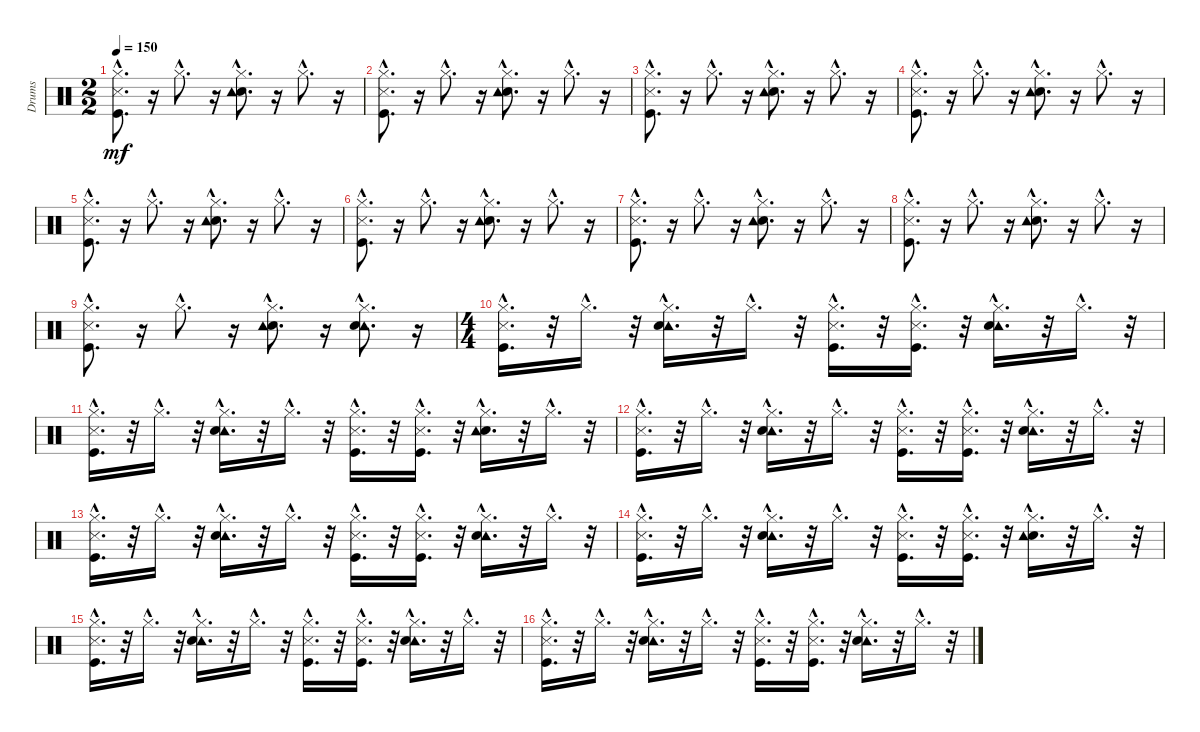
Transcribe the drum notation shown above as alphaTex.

\track ("Drums" "Drums") {instrument percussion}
\staff {score}
\articulation defaults
\ts (2 2)
\tempo 150
\clef neutral
\ks c
("Metronome (hit)"{hac} "Kick (hit)"{hac} "Hi-Hat (closed)"{hac}).8{d dy mf} r.16 "Hi-Hat (closed)"{hac}.8{d} r.16 ("Electric Snare (hit)"{hac} "Tambourine (hit)"{hac} "Hi-Hat (closed)"{hac}).8{d} r.16 "Hi-Hat (closed)"{hac}.8{d} r.16 |
("Metronome (hit)"{hac} "Kick (hit)"{hac} "Hi-Hat (closed)"{hac}).8{d} r.16 "Hi-Hat (closed)"{hac}.8{d} r.16 ("Electric Snare (hit)"{hac} "Tambourine (hit)"{hac} "Hi-Hat (closed)"{hac}).8{d} r.16 "Hi-Hat (closed)"{hac}.8{d} r.16 |
("Metronome (hit)"{hac} "Kick (hit)"{hac} "Hi-Hat (closed)"{hac}).8{d} r.16 "Hi-Hat (closed)"{hac}.8{d} r.16 ("Electric Snare (hit)"{hac} "Tambourine (hit)"{hac} "Hi-Hat (closed)"{hac}).8{d} r.16 "Hi-Hat (closed)"{hac}.8{d} r.16 |
("Metronome (hit)"{hac} "Kick (hit)"{hac} "Hi-Hat (closed)"{hac}).8{d} r.16 "Hi-Hat (closed)"{hac}.8{d} r.16 ("Electric Snare (hit)"{hac} "Tambourine (hit)"{hac} "Hi-Hat (closed)"{hac}).8{d} r.16 "Hi-Hat (closed)"{hac}.8{d} r.16 |
("Metronome (hit)"{hac} "Kick (hit)"{hac} "Hi-Hat (closed)"{hac}).8{d} r.16 "Hi-Hat (closed)"{hac}.8{d} r.16 ("Electric Snare (hit)"{hac} "Tambourine (hit)"{hac} "Hi-Hat (closed)"{hac}).8{d} r.16 "Hi-Hat (closed)"{hac}.8{d} r.16 |
("Metronome (hit)"{hac} "Kick (hit)"{hac} "Hi-Hat (closed)"{hac}).8{d} r.16 "Hi-Hat (closed)"{hac}.8{d} r.16 ("Electric Snare (hit)"{hac} "Tambourine (hit)"{hac} "Hi-Hat (closed)"{hac}).8{d} r.16 "Hi-Hat (closed)"{hac}.8{d} r.16 |
("Metronome (hit)"{hac} "Kick (hit)"{hac} "Hi-Hat (closed)"{hac}).8{d} r.16 "Hi-Hat (closed)"{hac}.8{d} r.16 ("Electric Snare (hit)"{hac} "Tambourine (hit)"{hac} "Hi-Hat (closed)"{hac}).8{d} r.16 "Hi-Hat (closed)"{hac}.8{d} r.16 |
("Metronome (hit)"{hac} "Kick (hit)"{hac} "Hi-Hat (closed)"{hac}).8{d} r.16 "Hi-Hat (closed)"{hac}.8{d} r.16 ("Electric Snare (hit)"{hac} "Tambourine (hit)"{hac} "Hi-Hat (closed)"{hac}).8{d} r.16 "Hi-Hat (closed)"{hac}.8{d} r.16 |
("Metronome (hit)"{hac} "Kick (hit)"{hac} "Hi-Hat (closed)"{hac}).8{d} r.16 "Hi-Hat (closed)"{hac}.8{d} r.16 ("Electric Snare (hit)"{hac} "Tambourine (hit)"{hac} "Hi-Hat (closed)"{hac}).8{d} r.16 ("Tambourine (hit)"{hac} "Electric Snare (hit)"{hac} "Hi-Hat (closed)"{hac}).8{d} r.16 |
\ts (4 4)
("Metronome (hit)"{hac} "Kick (hit)"{hac} "Hi-Hat (closed)"{hac}).16{d} r.32 "Hi-Hat (closed)"{hac}.16{d} r.32 ("Tambourine (hit)"{hac} "Electric Snare (hit)"{hac} "Hi-Hat (closed)"{hac}).16{d} r.32 "Hi-Hat (closed)"{hac}.16{d} r.32 ("Metronome (hit)"{hac} "Kick (hit)"{hac} "Hi-Hat (closed)"{hac}).16{d} r.32 ("Hi-Hat (closed)"{hac} "Metronome (hit)"{hac} "Kick (hit)"{hac}).16{d} r.32 ("Tambourine (hit)"{hac} "Electric Snare (hit)"{hac} "Hi-Hat (closed)"{hac}).16{d} r.32 "Hi-Hat (closed)"{hac}.16{d} r.32 |
("Metronome (hit)"{hac} "Kick (hit)"{hac} "Hi-Hat (closed)"{hac}).16{d} r.32 "Hi-Hat (closed)"{hac}.16{d} r.32 ("Tambourine (hit)"{hac} "Electric Snare (hit)"{hac} "Hi-Hat (closed)"{hac}).16{d} r.32 "Hi-Hat (closed)"{hac}.16{d} r.32 ("Metronome (hit)"{hac} "Kick (hit)"{hac} "Hi-Hat (closed)"{hac}).16{d} r.32 ("Kick (hit)"{hac} "Metronome (hit)"{hac} "Hi-Hat (closed)"{hac}).16{d} r.32 ("Electric Snare (hit)"{hac} "Hi-Hat (closed)"{hac} "Tambourine (hit)"{hac}).16{d} r.32 "Hi-Hat (closed)"{hac}.16{d} r.32 |
("Metronome (hit)"{hac} "Kick (hit)"{hac} "Hi-Hat (closed)"{hac}).16{d} r.32 "Hi-Hat (closed)"{hac}.16{d} r.32 ("Tambourine (hit)"{hac} "Electric Snare (hit)"{hac} "Hi-Hat (closed)"{hac}).16{d} r.32 "Hi-Hat (closed)"{hac}.16{d} r.32 ("Metronome (hit)"{hac} "Kick (hit)"{hac} "Hi-Hat (closed)"{hac}).16{d} r.32 ("Hi-Hat (closed)"{hac} "Metronome (hit)"{hac} "Kick (hit)"{hac}).16{d} r.32 ("Tambourine (hit)"{hac} "Electric Snare (hit)"{hac} "Hi-Hat (closed)"{hac}).16{d} r.32 "Hi-Hat (closed)"{hac}.16{d} r.32 |
("Metronome (hit)"{hac} "Kick (hit)"{hac} "Hi-Hat (closed)"{hac}).16{d} r.32 "Hi-Hat (closed)"{hac}.16{d} r.32 ("Tambourine (hit)"{hac} "Electric Snare (hit)"{hac} "Hi-Hat (closed)"{hac}).16{d} r.32 "Hi-Hat (closed)"{hac}.16{d} r.32 ("Metronome (hit)"{hac} "Kick (hit)"{hac} "Hi-Hat (closed)"{hac}).16{d} r.32 ("Hi-Hat (closed)"{hac} "Metronome (hit)"{hac} "Kick (hit)"{hac}).16{d} r.32 ("Tambourine (hit)"{hac} "Electric Snare (hit)"{hac} "Hi-Hat (closed)"{hac}).16{d} r.32 "Hi-Hat (closed)"{hac}.16{d} r.32 |
("Metronome (hit)"{hac} "Kick (hit)"{hac} "Hi-Hat (closed)"{hac}).16{d} r.32 "Hi-Hat (closed)"{hac}.16{d} r.32 ("Tambourine (hit)"{hac} "Electric Snare (hit)"{hac} "Hi-Hat (closed)"{hac}).16{d} r.32 "Hi-Hat (closed)"{hac}.16{d} r.32 ("Metronome (hit)"{hac} "Kick (hit)"{hac} "Hi-Hat (closed)"{hac}).16{d} r.32 ("Metronome (hit)"{hac} "Kick (hit)"{hac} "Hi-Hat (closed)"{hac}).16{d} r.32 ("Electric Snare (hit)"{hac} "Tambourine (hit)"{hac} "Hi-Hat (closed)"{hac}).16{d} r.32 "Hi-Hat (closed)"{hac}.16{d} r.32 |
("Metronome (hit)"{hac} "Kick (hit)"{hac} "Hi-Hat (closed)"{hac}).16{d} r.32 "Hi-Hat (closed)"{hac}.16{d} r.32 ("Tambourine (hit)"{hac} "Electric Snare (hit)"{hac} "Hi-Hat (closed)"{hac}).16{d} r.32 "Hi-Hat (closed)"{hac}.16{d} r.32 ("Metronome (hit)"{hac} "Kick (hit)"{hac} "Hi-Hat (closed)"{hac}).16{d} r.32 ("Hi-Hat (closed)"{hac} "Metronome (hit)"{hac} "Kick (hit)"{hac}).16{d} r.32 ("Tambourine (hit)"{hac} "Electric Snare (hit)"{hac} "Hi-Hat (closed)"{hac}).16{d} r.32 "Hi-Hat (closed)"{hac}.16{d} r.32 |
("Metronome (hit)"{hac} "Kick (hit)"{hac} "Hi-Hat (closed)"{hac}).16{d} r.32 "Hi-Hat (closed)"{hac}.16{d} r.32 ("Tambourine (hit)"{hac} "Electric Snare (hit)"{hac} "Hi-Hat (closed)"{hac}).16{d} r.32 "Hi-Hat (closed)"{hac}.16{d} r.32 ("Metronome (hit)"{hac} "Kick (hit)"{hac} "Hi-Hat (closed)"{hac}).16{d} r.32 ("Hi-Hat (closed)"{hac} "Metronome (hit)"{hac} "Kick (hit)"{hac}).16{d} r.32 ("Tambourine (hit)"{hac} "Electric Snare (hit)"{hac} "Hi-Hat (closed)"{hac}).16{d} r.32 "Hi-Hat (closed)"{hac}.16{d} r.32
